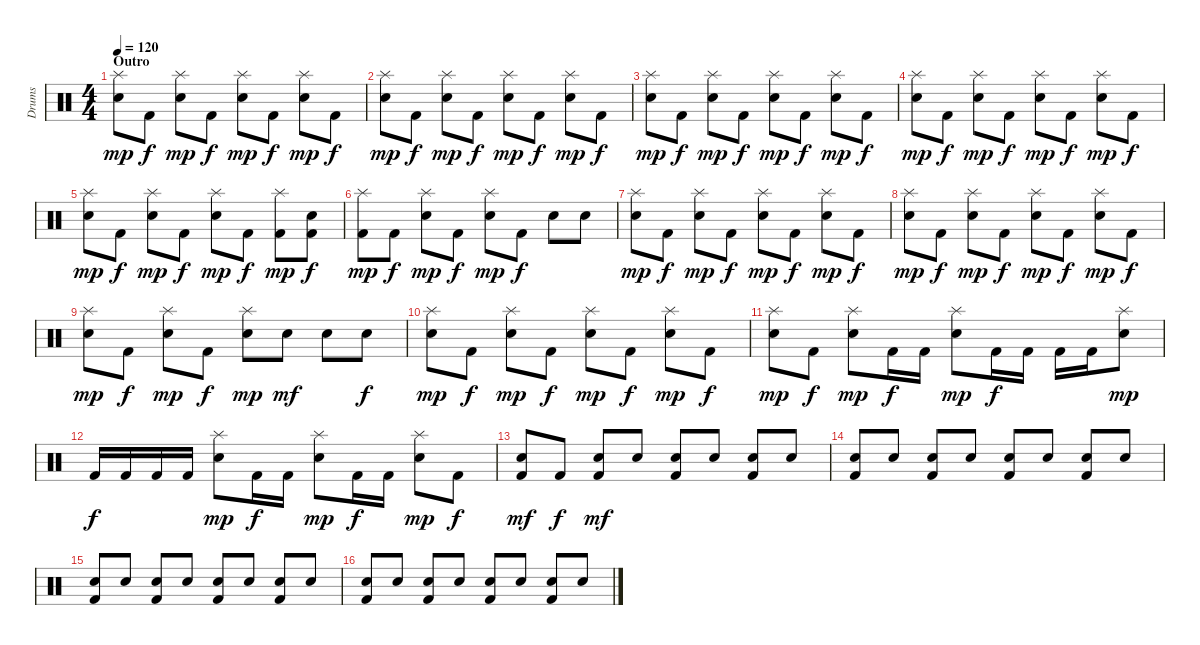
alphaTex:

\track ("Drums" "Drums") {instrument percussion}
\staff {score}
\articulation defaults
\ts (4 4)
\section ("" "Outro")
\tempo 120
\clef neutral
\ks c
("Splash (hit)" "Snare (hit) 2").8{dy mp} "Kick (hit) 2".8{dy f} ("Splash (hit)" "Snare (hit) 2").8{dy mp} "Kick (hit) 2".8{dy f} ("Splash (hit)" "Snare (hit) 2").8{dy mp} "Kick (hit) 2".8{dy f} ("Splash (hit)" "Snare (hit) 2").8{dy mp} "Kick (hit) 2".8{dy f} |
("Splash (hit)" "Snare (hit) 2").8{dy mp} "Kick (hit) 2".8{dy f} ("Splash (hit)" "Snare (hit) 2").8{dy mp} "Kick (hit) 2".8{dy f} ("Splash (hit)" "Snare (hit) 2").8{dy mp} "Kick (hit) 2".8{dy f} ("Splash (hit)" "Snare (hit) 2").8{dy mp} "Kick (hit) 2".8{dy f} |
("Splash (hit)" "Snare (hit) 2").8{dy mp} "Kick (hit) 2".8{dy f} ("Splash (hit)" "Snare (hit) 2").8{dy mp} "Kick (hit) 2".8{dy f} ("Splash (hit)" "Snare (hit) 2").8{dy mp} "Kick (hit) 2".8{dy f} ("Splash (hit)" "Snare (hit) 2").8{dy mp} "Kick (hit) 2".8{dy f} |
("Splash (hit)" "Snare (hit) 2").8{dy mp} "Kick (hit) 2".8{dy f} ("Splash (hit)" "Snare (hit) 2").8{dy mp} "Kick (hit) 2".8{dy f} ("Splash (hit)" "Snare (hit) 2").8{dy mp} "Kick (hit) 2".8{dy f} ("Splash (hit)" "Snare (hit) 2").8{dy mp} "Kick (hit) 2".8{dy f} |
("Splash (hit)" "Snare (hit) 2").8{dy mp} "Kick (hit) 2".8{dy f} ("Splash (hit)" "Snare (hit) 2").8{dy mp} "Kick (hit) 2".8{dy f} ("Splash (hit)" "Snare (hit) 2").8{dy mp} "Kick (hit) 2".8{dy f} ("Kick (hit) 2" "Splash (hit)").8{dy mp} ("Kick (hit) 2" "Snare (hit) 2").8{dy f} |
("Kick (hit) 2" "Splash (hit)").8{dy mp} "Kick (hit) 2".8{dy f} ("Splash (hit)" "Snare (hit) 2").8{dy mp} "Kick (hit) 2".8{dy f} ("Splash (hit)" "Snare (hit) 2").8{dy mp} "Kick (hit) 2".8{dy f} "Snare (hit) 2".8 "Snare (hit) 2".8 |
("Splash (hit)" "Snare (hit) 2").8{dy mp} "Kick (hit) 2".8{dy f} ("Splash (hit)" "Snare (hit) 2").8{dy mp} "Kick (hit) 2".8{dy f} ("Splash (hit)" "Snare (hit) 2").8{dy mp} "Kick (hit) 2".8{dy f} ("Splash (hit)" "Snare (hit) 2").8{dy mp} "Kick (hit) 2".8{dy f} |
("Splash (hit)" "Snare (hit) 2").8{dy mp} "Kick (hit) 2".8{dy f} ("Splash (hit)" "Snare (hit) 2").8{dy mp} "Kick (hit) 2".8{dy f} ("Splash (hit)" "Snare (hit) 2").8{dy mp} "Kick (hit) 2".8{dy f} ("Splash (hit)" "Snare (hit) 2").8{dy mp} "Kick (hit) 2".8{dy f} |
("Splash (hit)" "Snare (hit) 2").8{dy mp} "Kick (hit) 2".8{dy f} ("Splash (hit)" "Snare (hit) 2").8{dy mp} "Kick (hit) 2".8{dy f} ("Splash (hit)" "Snare (hit) 2").8{dy mp} "Snare (hit) 2".8{dy mf} "Snare (hit) 2".8 "Snare (hit) 2".8{dy f} |
("Splash (hit)" "Snare (hit) 2").8{dy mp} "Kick (hit) 2".8{dy f} ("Splash (hit)" "Snare (hit) 2").8{dy mp} "Kick (hit) 2".8{dy f} ("Splash (hit)" "Snare (hit) 2").8{dy mp} "Kick (hit) 2".8{dy f} ("Splash (hit)" "Snare (hit) 2").8{dy mp} "Kick (hit) 2".8{dy f} |
("Splash (hit)" "Snare (hit) 2").8{dy mp} "Kick (hit) 2".8{dy f} ("Splash (hit)" "Snare (hit) 2").8{dy mp} "Kick (hit) 2".16{dy f} "Kick (hit) 2".16 ("Splash (hit)" "Snare (hit) 2").8{dy mp} "Kick (hit) 2".16{dy f} "Kick (hit) 2".16 "Kick (hit) 2".16 "Kick (hit) 2".16 ("Splash (hit)" "Snare (hit) 2").8{dy mp} |
"Kick (hit) 2".16{dy f} "Kick (hit) 2".16 "Kick (hit) 2".16 "Kick (hit) 2".16 ("Splash (hit)" "Snare (hit) 2").8{dy mp} "Kick (hit) 2".16{dy f} "Kick (hit) 2".16 ("Splash (hit)" "Snare (hit) 2").8{dy mp} "Kick (hit) 2".16{dy f} "Kick (hit) 2".16 ("Splash (hit)" "Snare (hit) 2").8{dy mp} "Kick (hit) 2".8{dy f} |
("Kick (hit) 2" "Snare (hit) 2").8{dy mf} "Kick (hit) 2".8{dy f} ("Kick (hit) 2" "Snare (hit) 2").8{dy mf} "Snare (hit) 2".8 ("Kick (hit) 2" "Snare (hit) 2").8 "Snare (hit) 2".8 ("Kick (hit) 2" "Snare (hit) 2").8 "Snare (hit) 2".8 |
("Kick (hit) 2" "Snare (hit) 2").8 "Snare (hit) 2".8 ("Kick (hit) 2" "Snare (hit) 2").8 "Snare (hit) 2".8 ("Kick (hit) 2" "Snare (hit) 2").8 "Snare (hit) 2".8 ("Kick (hit) 2" "Snare (hit) 2").8 "Snare (hit) 2".8 |
("Kick (hit) 2" "Snare (hit) 2").8 "Snare (hit) 2".8 ("Kick (hit) 2" "Snare (hit) 2").8 "Snare (hit) 2".8 ("Kick (hit) 2" "Snare (hit) 2").8 "Snare (hit) 2".8 ("Kick (hit) 2" "Snare (hit) 2").8 "Snare (hit) 2".8 |
("Kick (hit) 2" "Snare (hit) 2").8 "Snare (hit) 2".8 ("Kick (hit) 2" "Snare (hit) 2").8 "Snare (hit) 2".8 ("Kick (hit) 2" "Snare (hit) 2").8 "Snare (hit) 2".8 ("Kick (hit) 2" "Snare (hit) 2").8 "Snare (hit) 2".8
